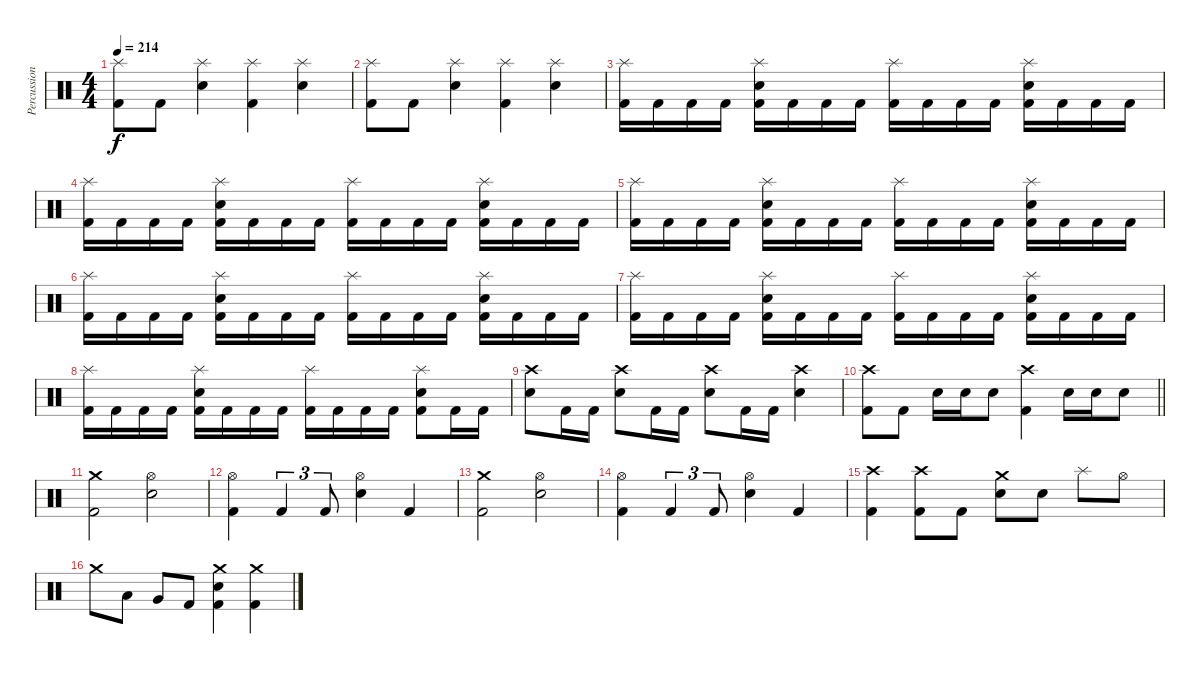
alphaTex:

\track ("Percussion" "Percussion") {instrument percussion}
\staff {score}
\articulation defaults
\ts (4 4)
\tempo 214
\clef neutral
\ks c
("Splash (hit)" "Kick (hit) 2").8{dy f} "Kick (hit) 2".8 ("Splash (hit)" "Electric Snare (hit)").4 ("Splash (hit)" "Kick (hit) 2").4 ("Splash (hit)" "Electric Snare (hit)").4 |
("Splash (hit)" "Kick (hit) 2").8 "Kick (hit) 2".8 ("Splash (hit)" "Electric Snare (hit)").4 ("Splash (hit)" "Kick (hit) 2").4 ("Splash (hit)" "Electric Snare (hit)").4 |
("Splash (hit)" "Kick (hit) 2").16 "Kick (hit) 2".16 "Kick (hit) 2".16 "Kick (hit) 2".16 ("Splash (hit)" "Electric Snare (hit)" "Kick (hit) 2").16 "Kick (hit) 2".16 "Kick (hit) 2".16 "Kick (hit) 2".16 ("Splash (hit)" "Kick (hit) 2").16 "Kick (hit) 2".16 "Kick (hit) 2".16 "Kick (hit) 2".16 ("Splash (hit)" "Electric Snare (hit)" "Kick (hit) 2").16 "Kick (hit) 2".16 "Kick (hit) 2".16 "Kick (hit) 2".16 |
("Splash (hit)" "Kick (hit) 2").16 "Kick (hit) 2".16 "Kick (hit) 2".16 "Kick (hit) 2".16 ("Splash (hit)" "Electric Snare (hit)" "Kick (hit) 2").16 "Kick (hit) 2".16 "Kick (hit) 2".16 "Kick (hit) 2".16 ("Splash (hit)" "Kick (hit) 2").16 "Kick (hit) 2".16 "Kick (hit) 2".16 "Kick (hit) 2".16 ("Splash (hit)" "Electric Snare (hit)" "Kick (hit) 2").16 "Kick (hit) 2".16 "Kick (hit) 2".16 "Kick (hit) 2".16 |
("Splash (hit)" "Kick (hit) 2").16 "Kick (hit) 2".16 "Kick (hit) 2".16 "Kick (hit) 2".16 ("Splash (hit)" "Electric Snare (hit)" "Kick (hit) 2").16 "Kick (hit) 2".16 "Kick (hit) 2".16 "Kick (hit) 2".16 ("Splash (hit)" "Kick (hit) 2").16 "Kick (hit) 2".16 "Kick (hit) 2".16 "Kick (hit) 2".16 ("Splash (hit)" "Electric Snare (hit)" "Kick (hit) 2").16 "Kick (hit) 2".16 "Kick (hit) 2".16 "Kick (hit) 2".16 |
("Splash (hit)" "Kick (hit) 2").16 "Kick (hit) 2".16 "Kick (hit) 2".16 "Kick (hit) 2".16 ("Splash (hit)" "Electric Snare (hit)" "Kick (hit) 2").16 "Kick (hit) 2".16 "Kick (hit) 2".16 "Kick (hit) 2".16 ("Splash (hit)" "Kick (hit) 2").16 "Kick (hit) 2".16 "Kick (hit) 2".16 "Kick (hit) 2".16 ("Splash (hit)" "Electric Snare (hit)" "Kick (hit) 2").16 "Kick (hit) 2".16 "Kick (hit) 2".16 "Kick (hit) 2".16 |
("Splash (hit)" "Kick (hit) 2").16 "Kick (hit) 2".16 "Kick (hit) 2".16 "Kick (hit) 2".16 ("Splash (hit)" "Electric Snare (hit)" "Kick (hit) 2").16 "Kick (hit) 2".16 "Kick (hit) 2".16 "Kick (hit) 2".16 ("Splash (hit)" "Kick (hit) 2").16 "Kick (hit) 2".16 "Kick (hit) 2".16 "Kick (hit) 2".16 ("Splash (hit)" "Electric Snare (hit)" "Kick (hit) 2").16 "Kick (hit) 2".16 "Kick (hit) 2".16 "Kick (hit) 2".16 |
("Splash (hit)" "Kick (hit) 2").16 "Kick (hit) 2".16 "Kick (hit) 2".16 "Kick (hit) 2".16 ("Splash (hit)" "Electric Snare (hit)" "Kick (hit) 2").16 "Kick (hit) 2".16 "Kick (hit) 2".16 "Kick (hit) 2".16 ("Splash (hit)" "Kick (hit) 2").16 "Kick (hit) 2".16 "Kick (hit) 2".16 "Kick (hit) 2".16 ("Splash (hit)" "Electric Snare (hit)" "Kick (hit) 2").8 "Kick (hit) 2".16 "Kick (hit) 2".16 |
("Crash high (hit)" "Electric Snare (hit)").8 "Kick (hit) 2".16 "Kick (hit) 2".16 ("Crash high (hit)" "Electric Snare (hit)").8 "Kick (hit) 2".16 "Kick (hit) 2".16 ("Crash high (hit)" "Electric Snare (hit)").8 "Kick (hit) 2".16 "Kick (hit) 2".16 ("Crash high (hit)" "Electric Snare (hit)").4 |
\barLineRight lightlight
("Crash high (hit)" "Kick (hit) 2").8 "Kick (hit) 2".8 "Electric Snare (hit)".16 "Electric Snare (hit)".16 "Electric Snare (hit)".8 ("Crash high (hit)" "Kick (hit) 2").4 "Electric Snare (hit)".16 "Electric Snare (hit)".16 "Electric Snare (hit)".8 |
\section ("" "")
("Crash medium (hit)" "Kick (hit) 2").2 ("Hi-Hat (open)" "Electric Snare (hit)").2 |
("Hi-Hat (open)" "Kick (hit) 2").4 "Kick (hit) 2".4{tu (3 2)} "Kick (hit) 2".8{tu (3 2)} ("Hi-Hat (open)" "Electric Snare (hit)").4 "Kick (hit) 2".4 |
("Crash medium (hit)" "Kick (hit) 2").2 ("Hi-Hat (open)" "Electric Snare (hit)").2 |
("Hi-Hat (open)" "Kick (hit) 2").4 "Kick (hit) 2".4{tu (3 2)} "Kick (hit) 2".8{tu (3 2)} ("Hi-Hat (open)" "Electric Snare (hit)").4 "Kick (hit) 2".4 |
("Crash high (hit)" "Kick (hit) 2").4 ("Crash high (hit)" "Kick (hit) 2").8 "Kick (hit) 2".8 ("Crash medium (hit)" "Electric Snare (hit)").8 "Electric Snare (hit)".8 "Splash (hit)".8 "Hi-Hat (open)".8 |
"Crash medium (hit)".8 "Low Tom (hit)".8 "Very Low Tom (hit)".8 "Kick (hit) 2".8 ("Crash medium (hit)" "Electric Snare (hit)" "Kick (hit) 2").4 ("Crash medium (hit)" "Kick (hit) 2").4
